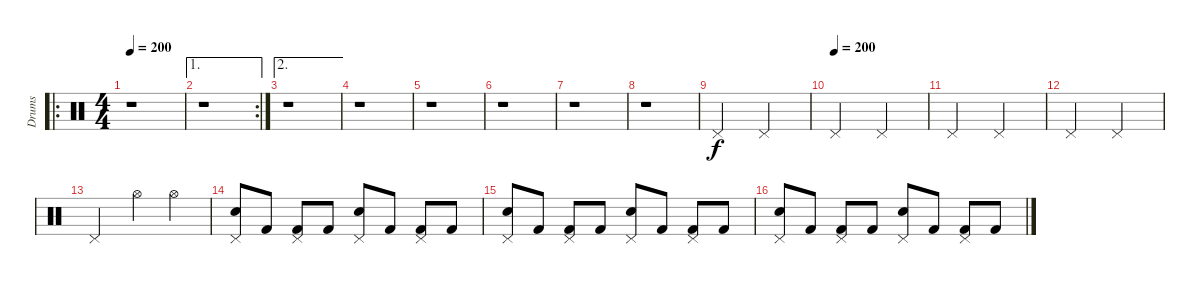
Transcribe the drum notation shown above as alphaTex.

\track ("Drums" "Drums") {instrument percussion}
\staff {score}
\articulation defaults
\ro
\ts (4 4)
\tempo 200
\tempo 116
\tempo 200
\clef neutral
\ks c
r.1{dy f} |
\ae 1
\rc 2
r.1 |
\ae 2
r.1 |
r.1 |
r.1 |
r.1 |
r.1 |
r.1 |
"Pedal Hi-Hat (hit)".2 "Pedal Hi-Hat (hit)".2 |
\tempo (200)
"Pedal Hi-Hat (hit)".2 "Pedal Hi-Hat (hit)".2 |
"Pedal Hi-Hat (hit)".2 "Pedal Hi-Hat (hit)".2 |
"Pedal Hi-Hat (hit)".2 "Pedal Hi-Hat (hit)".2 |
"Pedal Hi-Hat (hit)".2 "Hi-Hat (open)".4 "Hi-Hat (open)".4 |
("Pedal Hi-Hat (hit)" "Electric Snare (hit)").8 "Kick (hit) 2".8 ("Pedal Hi-Hat (hit)" "Kick (hit) 2").8 "Kick (hit) 2".8 ("Pedal Hi-Hat (hit)" "Electric Snare (hit)").8 "Kick (hit) 2".8 ("Pedal Hi-Hat (hit)" "Kick (hit) 2").8 "Kick (hit) 2".8 |
("Pedal Hi-Hat (hit)" "Electric Snare (hit)").8 "Kick (hit) 2".8 ("Pedal Hi-Hat (hit)" "Kick (hit) 2").8 "Kick (hit) 2".8 ("Pedal Hi-Hat (hit)" "Electric Snare (hit)").8 "Kick (hit) 2".8 ("Pedal Hi-Hat (hit)" "Kick (hit) 2").8 "Kick (hit) 2".8 |
("Pedal Hi-Hat (hit)" "Electric Snare (hit)").8 "Kick (hit) 2".8 ("Pedal Hi-Hat (hit)" "Kick (hit) 2").8 "Kick (hit) 2".8 ("Pedal Hi-Hat (hit)" "Electric Snare (hit)").8 "Kick (hit) 2".8 ("Pedal Hi-Hat (hit)" "Kick (hit) 2").8 "Kick (hit) 2".8
